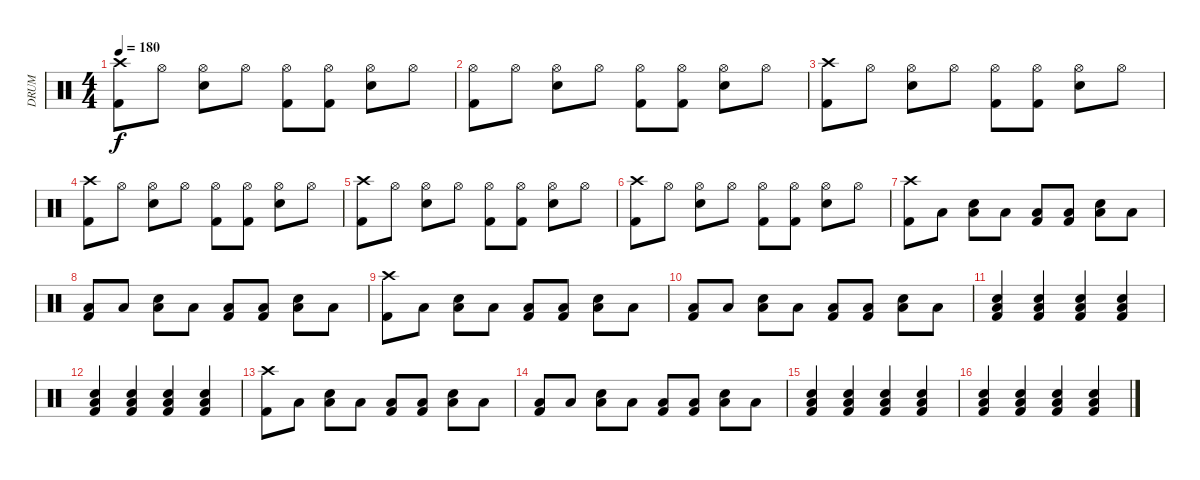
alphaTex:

\track ("DRUM" "DRUM") {instrument percussion}
\staff {score}
\articulation defaults
\ts (4 4)
\tempo 180
\clef neutral
\ks c
("Crash high (hit)" "Kick (hit) 2").8{dy f} "Hi-Hat (open)".8{volume 10} ("Hi-Hat (open)" "Snare (hit) 2").8 "Hi-Hat (open)".8{volume 10} ("Hi-Hat (open)" "Kick (hit) 2").8 ("Hi-Hat (open)" "Kick (hit) 2").8{volume 10} ("Hi-Hat (open)" "Snare (hit) 2").8 "Hi-Hat (open)".8{volume 10} |
("Hi-Hat (open)" "Kick (hit) 2").8 "Hi-Hat (open)".8{volume 10} ("Hi-Hat (open)" "Snare (hit) 2").8 "Hi-Hat (open)".8{volume 10} ("Hi-Hat (open)" "Kick (hit) 2").8 ("Hi-Hat (open)" "Kick (hit) 2").8{volume 10} ("Hi-Hat (open)" "Snare (hit) 2").8 "Hi-Hat (open)".8{volume 10} |
("Crash high (hit)" "Kick (hit) 2").8 "Hi-Hat (open)".8{volume 10} ("Hi-Hat (open)" "Snare (hit) 2").8 "Hi-Hat (open)".8{volume 10} ("Hi-Hat (open)" "Kick (hit) 2").8 ("Hi-Hat (open)" "Kick (hit) 2").8{volume 10} ("Hi-Hat (open)" "Snare (hit) 2").8 "Hi-Hat (open)".8{volume 10} |
("Crash high (hit)" "Kick (hit) 2").8 "Hi-Hat (open)".8{volume 10} ("Hi-Hat (open)" "Snare (hit) 2").8 "Hi-Hat (open)".8{volume 10} ("Hi-Hat (open)" "Kick (hit) 2").8 ("Hi-Hat (open)" "Kick (hit) 2").8{volume 10} ("Hi-Hat (open)" "Snare (hit) 2").8 "Hi-Hat (open)".8{volume 10} |
("Crash high (hit)" "Kick (hit) 2").8 "Hi-Hat (open)".8{volume 10} ("Hi-Hat (open)" "Snare (hit) 2").8 "Hi-Hat (open)".8{volume 10} ("Hi-Hat (open)" "Kick (hit) 2").8 ("Hi-Hat (open)" "Kick (hit) 2").8{volume 10} ("Hi-Hat (open)" "Snare (hit) 2").8 "Hi-Hat (open)".8{volume 10} |
("Crash high (hit)" "Kick (hit) 2").8 "Hi-Hat (open)".8{volume 10} ("Hi-Hat (open)" "Snare (hit) 2").8 "Hi-Hat (open)".8{volume 10} ("Hi-Hat (open)" "Kick (hit) 2").8 ("Hi-Hat (open)" "Kick (hit) 2").8{volume 10} ("Hi-Hat (open)" "Snare (hit) 2").8 "Hi-Hat (open)".8{volume 10} |
("Crash high (hit)" "Kick (hit) 2").8 "Low Floor Tom (hit)".8{volume 10} ("Low Floor Tom (hit)" "Snare (hit) 2").8 "Low Floor Tom (hit)".8{volume 10} ("Low Floor Tom (hit)" "Kick (hit) 2").8 ("Low Floor Tom (hit)" "Kick (hit) 2").8{volume 10} ("Low Floor Tom (hit)" "Snare (hit) 2").8 "Low Floor Tom (hit)".8{volume 10} |
("Low Floor Tom (hit)" "Kick (hit) 2").8 "Low Floor Tom (hit)".8{volume 10} ("Low Floor Tom (hit)" "Snare (hit) 2").8 "Low Floor Tom (hit)".8{volume 10} ("Low Floor Tom (hit)" "Kick (hit) 2").8 ("Low Floor Tom (hit)" "Kick (hit) 2").8{volume 10} ("Low Floor Tom (hit)" "Snare (hit) 2").8 "Low Floor Tom (hit)".8{volume 10} |
("Crash high (hit)" "Kick (hit) 2").8 "Low Floor Tom (hit)".8{volume 10} ("Low Floor Tom (hit)" "Snare (hit) 2").8 "Low Floor Tom (hit)".8{volume 10} ("Low Floor Tom (hit)" "Kick (hit) 2").8 ("Low Floor Tom (hit)" "Kick (hit) 2").8{volume 10} ("Low Floor Tom (hit)" "Snare (hit) 2").8 "Low Floor Tom (hit)".8{volume 10} |
("Low Floor Tom (hit)" "Kick (hit) 2").8 "Low Floor Tom (hit)".8{volume 10} ("Low Floor Tom (hit)" "Snare (hit) 2").8 "Low Floor Tom (hit)".8{volume 10} ("Low Floor Tom (hit)" "Kick (hit) 2").8 ("Low Floor Tom (hit)" "Kick (hit) 2").8{volume 10} ("Low Floor Tom (hit)" "Snare (hit) 2").8 "Low Floor Tom (hit)".8{volume 10} |
("Low Floor Tom (hit)" "Snare (hit) 2" "Kick (hit) 2").4 ("Low Floor Tom (hit)" "Snare (hit) 2" "Kick (hit) 2").4 ("Low Floor Tom (hit)" "Snare (hit) 2" "Kick (hit) 2").4 ("Low Floor Tom (hit)" "Snare (hit) 2" "Kick (hit) 2").4 |
("Low Floor Tom (hit)" "Snare (hit) 2" "Kick (hit) 2").4 ("Low Floor Tom (hit)" "Snare (hit) 2" "Kick (hit) 2").4 ("Low Floor Tom (hit)" "Snare (hit) 2" "Kick (hit) 2").4 ("Low Floor Tom (hit)" "Snare (hit) 2" "Kick (hit) 2").4 |
("Crash high (hit)" "Kick (hit) 2").8 "Low Floor Tom (hit)".8{volume 10} ("Low Floor Tom (hit)" "Snare (hit) 2").8 "Low Floor Tom (hit)".8{volume 10} ("Low Floor Tom (hit)" "Kick (hit) 2").8 ("Low Floor Tom (hit)" "Kick (hit) 2").8{volume 10} ("Low Floor Tom (hit)" "Snare (hit) 2").8 "Low Floor Tom (hit)".8{volume 10} |
("Low Floor Tom (hit)" "Kick (hit) 2").8 "Low Floor Tom (hit)".8{volume 10} ("Low Floor Tom (hit)" "Snare (hit) 2").8 "Low Floor Tom (hit)".8{volume 10} ("Low Floor Tom (hit)" "Kick (hit) 2").8 ("Low Floor Tom (hit)" "Kick (hit) 2").8{volume 10} ("Low Floor Tom (hit)" "Snare (hit) 2").8 "Low Floor Tom (hit)".8{volume 10} |
("Low Floor Tom (hit)" "Snare (hit) 2" "Kick (hit) 2").4 ("Low Floor Tom (hit)" "Snare (hit) 2" "Kick (hit) 2").4 ("Low Floor Tom (hit)" "Snare (hit) 2" "Kick (hit) 2").4 ("Low Floor Tom (hit)" "Snare (hit) 2" "Kick (hit) 2").4 |
("Low Floor Tom (hit)" "Snare (hit) 2" "Kick (hit) 2").4 ("Low Floor Tom (hit)" "Snare (hit) 2" "Kick (hit) 2").4 ("Low Floor Tom (hit)" "Snare (hit) 2" "Kick (hit) 2").4 ("Low Floor Tom (hit)" "Snare (hit) 2" "Kick (hit) 2").4
